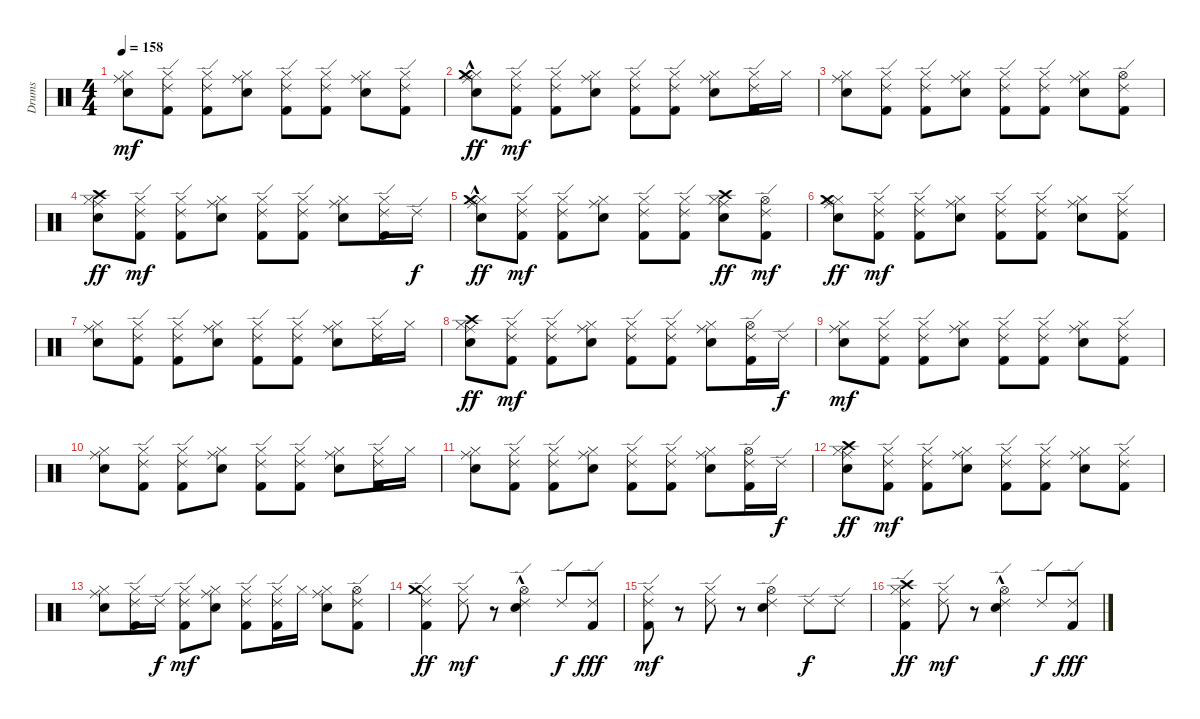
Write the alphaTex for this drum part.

\track ("Drums" "Drums") {instrument percussion}
\staff {score}
\articulation defaults
\ts (4 4)
\tempo 158
\clef neutral
\ks c
("Snare (hit) 2" "Hi-Hat (closed)" "Ride (middle)").8{dy mf} ("Kick (hit) 2" "Hi-Hat (closed)" "Ride (edge) 2").8 ("Kick (hit) 2" "Hi-Hat (closed)" "Ride (edge) 2").8 ("Snare (hit) 2" "Hi-Hat (closed)" "Ride (middle)").8 ("Kick (hit) 2" "Hi-Hat (closed)" "Ride (edge) 2").8 ("Kick (hit) 2" "Hi-Hat (closed)" "Ride (edge) 2").8 ("Snare (hit) 2" "Hi-Hat (closed)" "Ride (middle)").8 ("Kick (hit) 2" "Hi-Hat (closed)" "Ride (edge) 2").8 |
("Snare (hit) 2" "Hi-Hat (closed)" "Ride (middle)" "Crash medium (hit)"{hac}).8{dy ff} ("Kick (hit) 2" "Hi-Hat (closed)" "Ride (edge) 2").8{dy mf} ("Kick (hit) 2" "Hi-Hat (closed)" "Ride (edge) 2").8 ("Snare (hit) 2" "Hi-Hat (closed)" "Ride (middle)").8 ("Kick (hit) 2" "Hi-Hat (closed)" "Ride (edge) 2").8 ("Kick (hit) 2" "Hi-Hat (closed)" "Ride (edge) 2").8 ("Snare (hit) 2" "Hi-Hat (closed)" "Ride (middle)").8 ("Kick (hit) 2" "Hi-Hat (closed)" "Ride (edge) 2").16 "Hi-Hat (closed)".16 |
("Snare (hit) 2" "Hi-Hat (closed)" "Ride (middle)").8 ("Kick (hit) 2" "Hi-Hat (closed)" "Ride (edge) 2").8 ("Kick (hit) 2" "Hi-Hat (closed)" "Ride (edge) 2").8 ("Snare (hit) 2" "Hi-Hat (closed)" "Ride (middle)").8 ("Kick (hit) 2" "Hi-Hat (closed)" "Ride (edge) 2").8 ("Kick (hit) 2" "Hi-Hat (closed)" "Ride (edge) 2").8 ("Snare (hit) 2" "Hi-Hat (closed)" "Ride (middle)").8 ("Kick (hit) 2" "Hi-Hat (open)" "Ride (edge) 2").8 |
("Snare (hit) 2" "Hi-Hat (closed)" "Ride (middle)" "Crash high (hit)").8{dy ff} ("Kick (hit) 2" "Hi-Hat (closed)" "Ride (edge) 2").8{dy mf} ("Kick (hit) 2" "Hi-Hat (closed)" "Ride (edge) 2").8 ("Snare (hit) 2" "Hi-Hat (closed)" "Ride (middle)").8 ("Kick (hit) 2" "Hi-Hat (closed)" "Ride (edge) 2").8 ("Kick (hit) 2" "Hi-Hat (closed)" "Ride (edge) 2").8 ("Snare (hit) 2" "Hi-Hat (closed)" "Ride (middle)").8 ("Kick (hit) 2" "Hi-Hat (closed)" "Ride (edge) 2").16 "Ride (edge) 2".16{dy f} |
("Snare (hit) 2" "Hi-Hat (closed)" "Ride (middle)" "Crash medium (hit)"{hac}).8{dy ff} ("Kick (hit) 2" "Hi-Hat (closed)" "Ride (edge) 2").8{dy mf} ("Kick (hit) 2" "Hi-Hat (closed)" "Ride (edge) 2").8 ("Snare (hit) 2" "Hi-Hat (closed)" "Ride (middle)").8 ("Kick (hit) 2" "Hi-Hat (closed)" "Ride (edge) 2").8 ("Kick (hit) 2" "Hi-Hat (closed)" "Ride (edge) 2").8 ("Snare (hit) 2" "Hi-Hat (closed)" "Ride (middle)" "Crash high (hit)").8{dy ff} ("Kick (hit) 2" "Hi-Hat (open)" "Ride (edge) 2").8{dy mf} |
("Snare (hit) 2" "Hi-Hat (closed)" "Ride (middle)" "Crash medium (hit)").8{dy ff} ("Kick (hit) 2" "Hi-Hat (closed)" "Ride (edge) 2").8{dy mf} ("Kick (hit) 2" "Hi-Hat (closed)" "Ride (edge) 2").8 ("Snare (hit) 2" "Hi-Hat (closed)" "Ride (middle)").8 ("Kick (hit) 2" "Hi-Hat (closed)" "Ride (edge) 2").8 ("Kick (hit) 2" "Hi-Hat (closed)" "Ride (edge) 2").8 ("Snare (hit) 2" "Hi-Hat (closed)" "Ride (middle)").8 ("Kick (hit) 2" "Hi-Hat (closed)" "Ride (edge) 2").8 |
("Snare (hit) 2" "Hi-Hat (closed)" "Ride (middle)").8 ("Kick (hit) 2" "Hi-Hat (closed)" "Ride (edge) 2").8 ("Kick (hit) 2" "Hi-Hat (closed)" "Ride (edge) 2").8 ("Snare (hit) 2" "Hi-Hat (closed)" "Ride (middle)").8 ("Kick (hit) 2" "Hi-Hat (closed)" "Ride (edge) 2").8 ("Kick (hit) 2" "Hi-Hat (closed)" "Ride (edge) 2").8 ("Snare (hit) 2" "Hi-Hat (closed)" "Ride (middle)").8 ("Kick (hit) 2" "Hi-Hat (closed)" "Ride (edge) 2").16 "Hi-Hat (closed)".16 |
("Snare (hit) 2" "Hi-Hat (closed)" "Ride (middle)" "Crash high (hit)").8{dy ff} ("Kick (hit) 2" "Hi-Hat (closed)" "Ride (edge) 2").8{dy mf} ("Kick (hit) 2" "Hi-Hat (closed)" "Ride (edge) 2").8 ("Snare (hit) 2" "Hi-Hat (closed)" "Ride (middle)").8 ("Kick (hit) 2" "Hi-Hat (closed)" "Ride (edge) 2").8 ("Kick (hit) 2" "Hi-Hat (closed)" "Ride (edge) 2").8 ("Snare (hit) 2" "Hi-Hat (closed)" "Ride (middle)").8 ("Kick (hit) 2" "Hi-Hat (open)" "Ride (edge) 2").16 "Ride (edge) 2".16{dy f} |
("Snare (hit) 2" "Hi-Hat (closed)" "Ride (middle)").8{dy mf} ("Kick (hit) 2" "Hi-Hat (closed)" "Ride (edge) 2").8 ("Kick (hit) 2" "Hi-Hat (closed)" "Ride (edge) 2").8 ("Snare (hit) 2" "Hi-Hat (closed)" "Ride (middle)").8 ("Kick (hit) 2" "Hi-Hat (closed)" "Ride (edge) 2").8 ("Kick (hit) 2" "Hi-Hat (closed)" "Ride (edge) 2").8 ("Snare (hit) 2" "Hi-Hat (closed)" "Ride (middle)").8 ("Kick (hit) 2" "Hi-Hat (closed)" "Ride (edge) 2").8 |
("Snare (hit) 2" "Hi-Hat (closed)" "Ride (middle)").8 ("Kick (hit) 2" "Hi-Hat (closed)" "Ride (edge) 2").8 ("Kick (hit) 2" "Hi-Hat (closed)" "Ride (edge) 2").8 ("Snare (hit) 2" "Hi-Hat (closed)" "Ride (middle)").8 ("Kick (hit) 2" "Hi-Hat (closed)" "Ride (edge) 2").8 ("Kick (hit) 2" "Hi-Hat (closed)" "Ride (edge) 2").8 ("Snare (hit) 2" "Hi-Hat (closed)" "Ride (middle)").8 ("Kick (hit) 2" "Hi-Hat (closed)" "Ride (edge) 2").16 "Hi-Hat (closed)".16 |
("Snare (hit) 2" "Hi-Hat (closed)" "Ride (middle)").8 ("Kick (hit) 2" "Hi-Hat (closed)" "Ride (edge) 2").8 ("Kick (hit) 2" "Hi-Hat (closed)" "Ride (edge) 2").8 ("Snare (hit) 2" "Hi-Hat (closed)" "Ride (middle)").8 ("Kick (hit) 2" "Hi-Hat (closed)" "Ride (edge) 2").8 ("Kick (hit) 2" "Hi-Hat (closed)" "Ride (edge) 2").8 ("Snare (hit) 2" "Hi-Hat (closed)" "Ride (middle)").8 ("Kick (hit) 2" "Hi-Hat (open)" "Ride (edge) 2").16 "Ride (edge) 2".16{dy f} |
("Snare (hit) 2" "Hi-Hat (closed)" "Ride (middle)" "Crash high (hit)").8{dy ff} ("Kick (hit) 2" "Hi-Hat (closed)" "Ride (edge) 2").8{dy mf} ("Kick (hit) 2" "Hi-Hat (closed)" "Ride (edge) 2").8 ("Snare (hit) 2" "Hi-Hat (closed)" "Ride (middle)").8 ("Kick (hit) 2" "Hi-Hat (closed)" "Ride (edge) 2").8 ("Kick (hit) 2" "Hi-Hat (closed)" "Ride (edge) 2").8 ("Snare (hit) 2" "Hi-Hat (closed)" "Ride (middle)").8 ("Kick (hit) 2" "Hi-Hat (closed)" "Ride (edge) 2").8 |
("Snare (hit) 2" "Hi-Hat (closed)" "Ride (middle)").8 ("Kick (hit) 2" "Hi-Hat (closed)" "Ride (edge) 2").16 "Ride (edge) 2".16{dy f} ("Kick (hit) 2" "Hi-Hat (closed)" "Ride (edge) 2").8{dy mf} ("Snare (hit) 2" "Hi-Hat (closed)" "Ride (middle)").8 ("Kick (hit) 2" "Hi-Hat (closed)" "Ride (edge) 2").8 ("Kick (hit) 2" "Hi-Hat (closed)" "Ride (edge) 2").16 "Hi-Hat (closed)".16 ("Snare (hit) 2" "Hi-Hat (closed)" "Ride (middle)").8 ("Kick (hit) 2" "Hi-Hat (open)" "Ride (edge) 2").8 |
("Kick (hit) 2" "Hi-Hat (closed)" "Ride (edge) 2" "Crash medium (hit)").4{dy ff} ("Hi-Hat (closed)" "Ride (edge) 2").8{dy mf} r.8 ("Snare (hit) 2" "Hi-Hat (open)"{hac} "Ride (edge) 2").4 "Ride (edge) 2".8{dy f} ("Kick (hit) 2" "Ride (edge) 2").8{dy fff} |
("Kick (hit) 2" "Hi-Hat (closed)" "Ride (edge) 2").8{dy mf} r.8 ("Hi-Hat (closed)" "Ride (edge) 2").8 r.8 ("Snare (hit) 2" "Hi-Hat (open)" "Ride (edge) 2").4 "Ride (edge) 2".8{dy f} "Ride (edge) 2".8 |
("Kick (hit) 2" "Hi-Hat (closed)" "Ride (edge) 2" "Crash high (hit)").4{dy ff} ("Hi-Hat (closed)" "Ride (edge) 2").8{dy mf} r.8 ("Snare (hit) 2" "Hi-Hat (open)"{hac} "Ride (edge) 2").4 "Ride (edge) 2".8{dy f} ("Kick (hit) 2" "Ride (edge) 2").8{dy fff}
